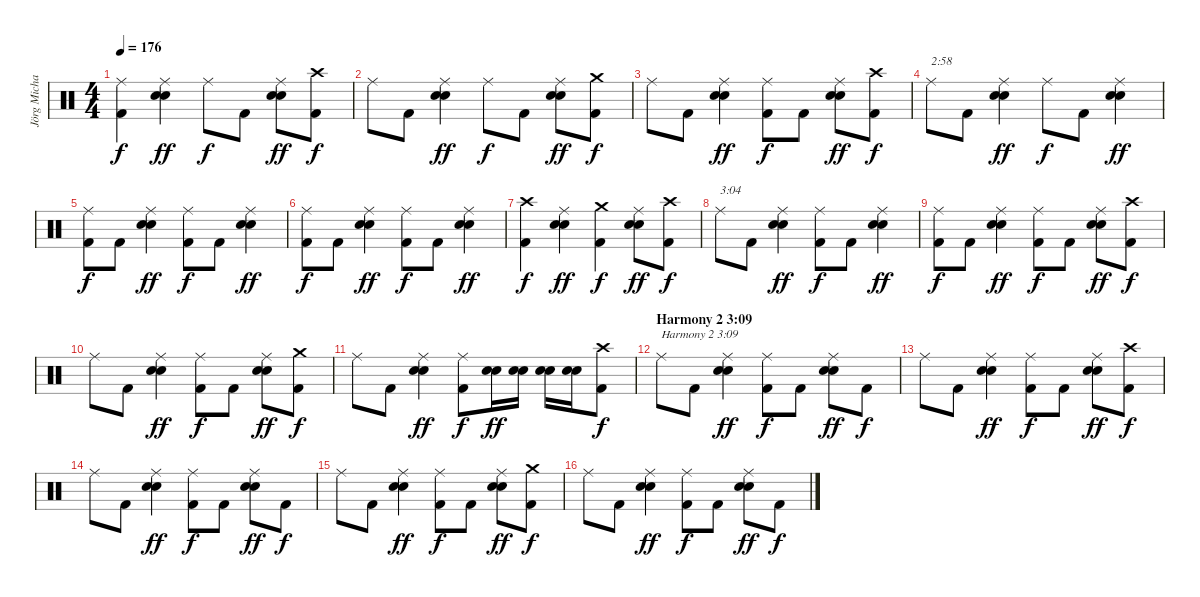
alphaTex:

\track ("Jörg Michael" "Jörg Micha") {instrument percussion}
\staff {score}
\articulation defaults
\ts (4 4)
\tempo 176
\clef neutral
\ks c
("Kick (hit) 2" "Ride (middle)").4{dy f} ("Snare (hit) 2" "Electric Snare (hit)" "Ride (middle)").4{dy ff} "Ride (middle)".8{dy f} "Kick (hit) 2".8 ("Snare (hit) 2" "Electric Snare (hit)" "Ride (middle)").8{dy ff} ("Kick (hit) 2" "Crash high (hit)").8{dy f} |
"Ride (middle)".8 "Kick (hit) 2".8 ("Snare (hit) 2" "Electric Snare (hit)" "Ride (middle)").4{dy ff} "Ride (middle)".8{dy f} "Kick (hit) 2".8 ("Snare (hit) 2" "Electric Snare (hit)" "Ride (middle)").8{dy ff} ("Kick (hit) 2" "Crash medium (hit)").8{dy f} |
"Ride (middle)".8 "Kick (hit) 2".8 ("Snare (hit) 2" "Electric Snare (hit)" "Ride (middle)").4{dy ff} ("Kick (hit) 2" "Ride (middle)").8{dy f} "Kick (hit) 2".8 ("Snare (hit) 2" "Electric Snare (hit)" "Ride (middle)").8{dy ff} ("Kick (hit) 2" "Crash high (hit)").8{dy f} |
"Ride (middle)".8{txt "2:58"} "Kick (hit) 2".8 ("Snare (hit) 2" "Electric Snare (hit)" "Ride (middle)").4{dy ff} "Ride (middle)".8{dy f} "Kick (hit) 2".8 ("Snare (hit) 2" "Electric Snare (hit)" "Ride (middle)").4{dy ff} |
("Kick (hit) 2" "Ride (middle)").8{dy f} "Kick (hit) 2".8 ("Snare (hit) 2" "Electric Snare (hit)" "Ride (middle)").4{dy ff} ("Kick (hit) 2" "Ride (middle)").8{dy f} "Kick (hit) 2".8 ("Snare (hit) 2" "Electric Snare (hit)" "Ride (middle)").4{dy ff} |
("Kick (hit) 2" "Ride (middle)").8{dy f} "Kick (hit) 2".8 ("Snare (hit) 2" "Electric Snare (hit)" "Ride (middle)").4{dy ff} ("Kick (hit) 2" "Ride (middle)").8{dy f} "Kick (hit) 2".8 ("Snare (hit) 2" "Electric Snare (hit)" "Ride (middle)").4{dy ff} |
("Kick (hit) 2" "Crash high (hit)").4{dy f} ("Snare (hit) 2" "Electric Snare (hit)" "Ride (middle)").4{dy ff} ("Kick (hit) 2" "Crash medium (hit)").4{dy f} ("Snare (hit) 2" "Electric Snare (hit)" "Ride (middle)").8{dy ff} ("Kick (hit) 2" "Crash high (hit)").8{dy f} |
"Ride (middle)".8{txt "3:04"} "Kick (hit) 2".8 ("Snare (hit) 2" "Electric Snare (hit)" "Ride (middle)").4{dy ff} ("Kick (hit) 2" "Ride (middle)").8{dy f} "Kick (hit) 2".8 ("Snare (hit) 2" "Electric Snare (hit)" "Ride (middle)").4{dy ff} |
("Kick (hit) 2" "Ride (middle)").8{dy f} "Kick (hit) 2".8 ("Snare (hit) 2" "Electric Snare (hit)" "Ride (middle)").4{dy ff} ("Kick (hit) 2" "Ride (middle)").8{dy f} "Kick (hit) 2".8 ("Snare (hit) 2" "Electric Snare (hit)" "Ride (middle)").8{dy ff} ("Kick (hit) 2" "Crash high (hit)").8{dy f} |
"Ride (middle)".8 "Kick (hit) 2".8 ("Snare (hit) 2" "Electric Snare (hit)" "Ride (middle)").4{dy ff} ("Kick (hit) 2" "Ride (middle)").8{dy f} "Kick (hit) 2".8 ("Snare (hit) 2" "Electric Snare (hit)" "Ride (middle)").8{dy ff} ("Kick (hit) 2" "Crash medium (hit)").8{dy f} |
"Ride (middle)".8 "Kick (hit) 2".8 ("Snare (hit) 2" "Electric Snare (hit)" "Ride (middle)").4{dy ff} ("Kick (hit) 2" "Ride (middle)").8{dy f} ("Snare (hit) 2" "Electric Snare (hit)").16{dy ff} ("Snare (hit) 2" "Electric Snare (hit)").16 ("Snare (hit) 2" "Electric Snare (hit)").16 ("Snare (hit) 2" "Electric Snare (hit)").16 ("Kick (hit) 2" "Crash high (hit)").8{dy f} |
\section ("" "Harmony 2 3:09")
"Ride (middle)".8{txt "Harmony 2 3:09"} "Kick (hit) 2".8 ("Snare (hit) 2" "Electric Snare (hit)" "Ride (middle)").4{dy ff} ("Kick (hit) 2" "Ride (middle)").8{dy f} "Kick (hit) 2".8 ("Snare (hit) 2" "Electric Snare (hit)" "Ride (middle)").8{dy ff} "Kick (hit) 2".8{dy f} |
"Ride (middle)".8 "Kick (hit) 2".8 ("Snare (hit) 2" "Electric Snare (hit)" "Ride (middle)").4{dy ff} ("Kick (hit) 2" "Ride (middle)").8{dy f} "Kick (hit) 2".8 ("Snare (hit) 2" "Electric Snare (hit)" "Ride (middle)").8{dy ff} ("Kick (hit) 2" "Crash high (hit)").8{dy f} |
"Ride (middle)".8 "Kick (hit) 2".8 ("Snare (hit) 2" "Electric Snare (hit)" "Ride (middle)").4{dy ff} ("Kick (hit) 2" "Ride (middle)").8{dy f} "Kick (hit) 2".8 ("Snare (hit) 2" "Electric Snare (hit)" "Ride (middle)").8{dy ff} "Kick (hit) 2".8{dy f} |
"Ride (middle)".8 "Kick (hit) 2".8 ("Snare (hit) 2" "Electric Snare (hit)" "Ride (middle)").4{dy ff} ("Kick (hit) 2" "Ride (middle)").8{dy f} "Kick (hit) 2".8 ("Snare (hit) 2" "Electric Snare (hit)" "Ride (middle)").8{dy ff} ("Kick (hit) 2" "Crash medium (hit)").8{dy f} |
"Ride (middle)".8 "Kick (hit) 2".8 ("Snare (hit) 2" "Electric Snare (hit)" "Ride (middle)").4{dy ff} ("Kick (hit) 2" "Ride (middle)").8{dy f} "Kick (hit) 2".8 ("Snare (hit) 2" "Electric Snare (hit)" "Ride (middle)").8{dy ff} "Kick (hit) 2".8{dy f}
